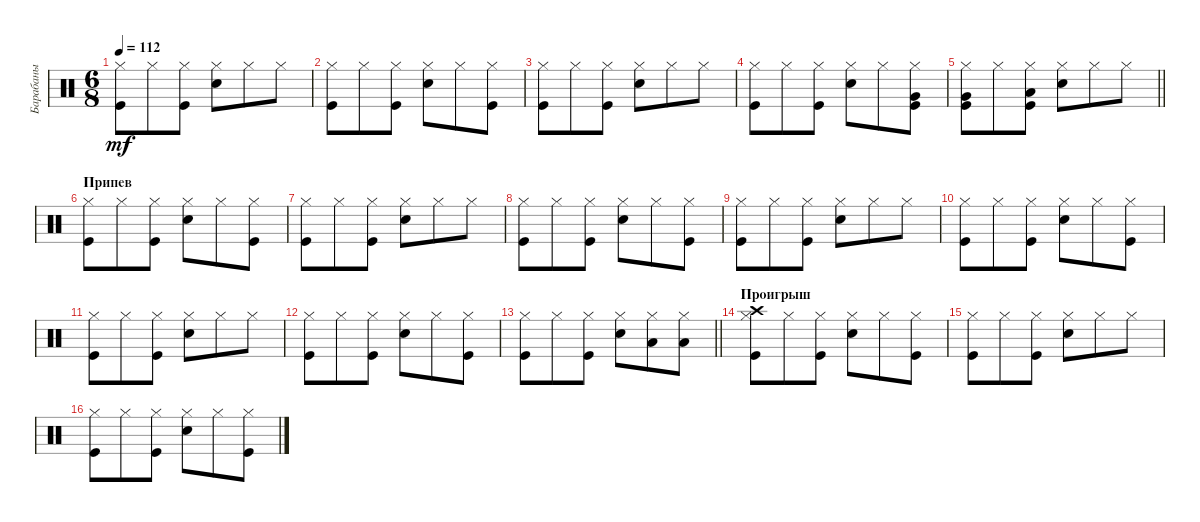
\track ("Барабаны" "Барабаны") {instrument percussion}
\staff {score}
\articulation defaults
\ts (6 8)
\tempo 112
\clef neutral
\ks c
("Kick (hit)" "Hi-Hat (closed)").8{dy mf} "Hi-Hat (closed)".8 ("Kick (hit)" "Hi-Hat (closed)").8 ("Snare (hit) 2" "Hi-Hat (closed)").8 "Hi-Hat (closed)".8 "Hi-Hat (closed)".8 |
("Kick (hit)" "Hi-Hat (closed)").8 "Hi-Hat (closed)".8 ("Kick (hit)" "Hi-Hat (closed)").8 ("Snare (hit) 2" "Hi-Hat (closed)").8 "Hi-Hat (closed)".8 ("Kick (hit)" "Hi-Hat (closed)").8 |
("Kick (hit)" "Hi-Hat (closed)").8 "Hi-Hat (closed)".8 ("Kick (hit)" "Hi-Hat (closed)").8 ("Snare (hit) 2" "Hi-Hat (closed)").8 "Hi-Hat (closed)".8 "Hi-Hat (closed)".8 |
("Kick (hit)" "Hi-Hat (closed)").8 "Hi-Hat (closed)".8 ("Kick (hit)" "Hi-Hat (closed)").8 ("Snare (hit) 2" "Hi-Hat (closed)").8 "Hi-Hat (closed)".8 ("Kick (hit)" "Hi-Hat (closed)" "Very Low Tom (hit)").8 |
\barLineRight lightlight
("Kick (hit)" "Hi-Hat (closed)" "Very Low Tom (hit)").8 "Hi-Hat (closed)".8 ("Kick (hit)" "Hi-Hat (closed)" "Low Tom (hit)").8 ("Snare (hit) 2" "Hi-Hat (closed)").8 "Hi-Hat (closed)".8 "Hi-Hat (closed)".8 |
\section ("" "Припев")
("Kick (hit)" "Hi-Hat (closed)").8 "Hi-Hat (closed)".8 ("Kick (hit)" "Hi-Hat (closed)").8 ("Snare (hit) 2" "Hi-Hat (closed)").8 "Hi-Hat (closed)".8 ("Kick (hit)" "Hi-Hat (closed)").8 |
("Kick (hit)" "Hi-Hat (closed)").8 "Hi-Hat (closed)".8 ("Kick (hit)" "Hi-Hat (closed)").8 ("Snare (hit) 2" "Hi-Hat (closed)").8 "Hi-Hat (closed)".8 "Hi-Hat (closed)".8 |
("Kick (hit)" "Hi-Hat (closed)").8 "Hi-Hat (closed)".8 ("Kick (hit)" "Hi-Hat (closed)").8 ("Snare (hit) 2" "Hi-Hat (closed)").8 "Hi-Hat (closed)".8 ("Kick (hit)" "Hi-Hat (closed)").8 |
("Kick (hit)" "Hi-Hat (closed)").8 "Hi-Hat (closed)".8 ("Kick (hit)" "Hi-Hat (closed)").8 ("Snare (hit) 2" "Hi-Hat (closed)").8 "Hi-Hat (closed)".8 "Hi-Hat (closed)".8 |
("Kick (hit)" "Hi-Hat (closed)").8 "Hi-Hat (closed)".8 ("Kick (hit)" "Hi-Hat (closed)").8 ("Snare (hit) 2" "Hi-Hat (closed)").8 "Hi-Hat (closed)".8 ("Kick (hit)" "Hi-Hat (closed)").8 |
("Kick (hit)" "Hi-Hat (closed)").8 "Hi-Hat (closed)".8 ("Kick (hit)" "Hi-Hat (closed)").8 ("Snare (hit) 2" "Hi-Hat (closed)").8 "Hi-Hat (closed)".8 "Hi-Hat (closed)".8 |
("Kick (hit)" "Hi-Hat (closed)").8 "Hi-Hat (closed)".8 ("Kick (hit)" "Hi-Hat (closed)").8 ("Snare (hit) 2" "Hi-Hat (closed)").8 "Hi-Hat (closed)".8 ("Kick (hit)" "Hi-Hat (closed)").8 |
\barLineRight lightlight
("Kick (hit)" "Hi-Hat (closed)").8 "Hi-Hat (closed)".8 ("Kick (hit)" "Hi-Hat (closed)").8 ("Snare (hit) 2" "Hi-Hat (closed)").8 ("Hi-Hat (closed)" "Low Tom (hit)").8 ("Hi-Hat (closed)" "Low Tom (hit)").8 |
\section ("" "Проигрыш")
("Kick (hit)" "Hi-Hat (closed)" "Crash high (hit)").8 "Hi-Hat (closed)".8 ("Kick (hit)" "Hi-Hat (closed)").8 ("Snare (hit) 2" "Hi-Hat (closed)").8 "Hi-Hat (closed)".8 ("Kick (hit)" "Hi-Hat (closed)").8 |
("Kick (hit)" "Hi-Hat (closed)").8 "Hi-Hat (closed)".8 ("Kick (hit)" "Hi-Hat (closed)").8 ("Snare (hit) 2" "Hi-Hat (closed)").8 "Hi-Hat (closed)".8 "Hi-Hat (closed)".8 |
("Kick (hit)" "Hi-Hat (closed)").8 "Hi-Hat (closed)".8 ("Kick (hit)" "Hi-Hat (closed)").8 ("Snare (hit) 2" "Hi-Hat (closed)").8 "Hi-Hat (closed)".8 ("Kick (hit)" "Hi-Hat (closed)").8
